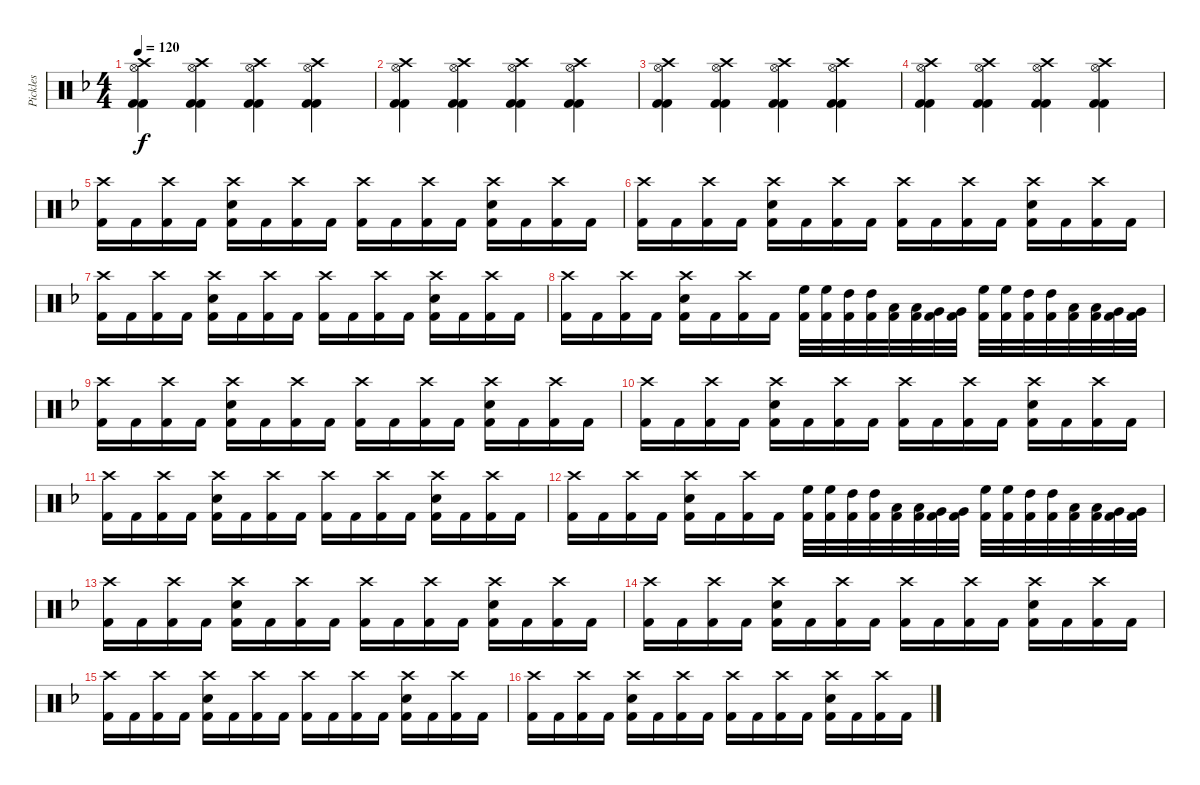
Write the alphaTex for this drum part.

\track ("Pickles" "Pickles") {instrument percussion}
\staff {score}
\articulation defaults
\ts (4 4)
\tempo 120
\clef neutral
\ks dminor
("Crash high (hit)" "Hi-Hat (open)" "Kick (hit) 2" "Kick (hit) 2").4{dy f} ("Crash high (hit)" "Hi-Hat (open)" "Kick (hit) 2" "Kick (hit) 2").4 ("Crash high (hit)" "Hi-Hat (open)" "Kick (hit) 2" "Kick (hit) 2").4 ("Crash high (hit)" "Hi-Hat (open)" "Kick (hit) 2" "Kick (hit) 2").4 |
("Crash high (hit)" "Hi-Hat (open)" "Kick (hit) 2" "Kick (hit) 2").4 ("Crash high (hit)" "Hi-Hat (open)" "Kick (hit) 2" "Kick (hit) 2").4 ("Crash high (hit)" "Hi-Hat (open)" "Kick (hit) 2" "Kick (hit) 2").4 ("Crash high (hit)" "Hi-Hat (open)" "Kick (hit) 2" "Kick (hit) 2").4 |
("Crash high (hit)" "Hi-Hat (open)" "Kick (hit) 2" "Kick (hit) 2").4 ("Crash high (hit)" "Hi-Hat (open)" "Kick (hit) 2" "Kick (hit) 2").4 ("Crash high (hit)" "Hi-Hat (open)" "Kick (hit) 2" "Kick (hit) 2").4 ("Crash high (hit)" "Hi-Hat (open)" "Kick (hit) 2" "Kick (hit) 2").4 |
("Crash high (hit)" "Hi-Hat (open)" "Kick (hit) 2" "Kick (hit) 2").4 ("Crash high (hit)" "Hi-Hat (open)" "Kick (hit) 2" "Kick (hit) 2").4 ("Crash high (hit)" "Hi-Hat (open)" "Kick (hit) 2" "Kick (hit) 2").4 ("Crash high (hit)" "Hi-Hat (open)" "Kick (hit) 2" "Kick (hit) 2").4 |
("Crash high (hit)" "Kick (hit) 2").16 "Kick (hit) 2".16 ("Crash high (hit)" "Kick (hit) 2").16 "Kick (hit) 2".16 ("Crash high (hit)" "Snare (hit) 2" "Kick (hit) 2").16 "Kick (hit) 2".16 ("Crash high (hit)" "Kick (hit) 2").16 "Kick (hit) 2".16 ("Crash high (hit)" "Kick (hit) 2").16 "Kick (hit) 2".16 ("Crash high (hit)" "Kick (hit) 2").16 "Kick (hit) 2".16 ("Crash high (hit)" "Snare (hit) 2" "Kick (hit) 2").16 "Kick (hit) 2".16 ("Crash high (hit)" "Kick (hit) 2").16 "Kick (hit) 2".16 |
("Crash high (hit)" "Kick (hit) 2").16 "Kick (hit) 2".16 ("Crash high (hit)" "Kick (hit) 2").16 "Kick (hit) 2".16 ("Crash high (hit)" "Snare (hit) 2" "Kick (hit) 2").16 "Kick (hit) 2".16 ("Crash high (hit)" "Kick (hit) 2").16 "Kick (hit) 2".16 ("Crash high (hit)" "Kick (hit) 2").16 "Kick (hit) 2".16 ("Crash high (hit)" "Kick (hit) 2").16 "Kick (hit) 2".16 ("Crash high (hit)" "Snare (hit) 2" "Kick (hit) 2").16 "Kick (hit) 2".16 ("Crash high (hit)" "Kick (hit) 2").16 "Kick (hit) 2".16 |
("Crash high (hit)" "Kick (hit) 2").16 "Kick (hit) 2".16 ("Crash high (hit)" "Kick (hit) 2").16 "Kick (hit) 2".16 ("Crash high (hit)" "Snare (hit) 2" "Kick (hit) 2").16 "Kick (hit) 2".16 ("Crash high (hit)" "Kick (hit) 2").16 "Kick (hit) 2".16 ("Crash high (hit)" "Kick (hit) 2").16 "Kick (hit) 2".16 ("Crash high (hit)" "Kick (hit) 2").16 "Kick (hit) 2".16 ("Crash high (hit)" "Snare (hit) 2" "Kick (hit) 2").16 "Kick (hit) 2".16 ("Crash high (hit)" "Kick (hit) 2").16 "Kick (hit) 2".16 |
("Crash high (hit)" "Kick (hit) 2").16 "Kick (hit) 2".16 ("Crash high (hit)" "Kick (hit) 2").16 "Kick (hit) 2".16 ("Crash high (hit)" "Snare (hit) 2" "Kick (hit) 2").16 "Kick (hit) 2".16 ("Crash high (hit)" "Kick (hit) 2").16 "Kick (hit) 2".16 ("High Floor Tom (hit)" "Kick (hit) 2").32 ("High Floor Tom (hit)" "Kick (hit) 2").32 ("High Tom (hit)" "Kick (hit) 2").32 ("High Tom (hit)" "Kick (hit) 2").32 ("Low Tom (hit)" "Kick (hit) 2").32 ("Low Tom (hit)" "Kick (hit) 2").32 ("Very Low Tom (hit)" "Kick (hit) 2").32 ("Very Low Tom (hit)" "Kick (hit) 2").32 ("High Floor Tom (hit)" "Kick (hit) 2").32 ("High Floor Tom (hit)" "Kick (hit) 2").32 ("High Tom (hit)" "Kick (hit) 2").32 ("High Tom (hit)" "Kick (hit) 2").32 ("Low Tom (hit)" "Kick (hit) 2").32 ("Low Tom (hit)" "Kick (hit) 2").32 ("Very Low Tom (hit)" "Kick (hit) 2").32 ("Very Low Tom (hit)" "Kick (hit) 2").32 |
("Crash high (hit)" "Kick (hit) 2").16 "Kick (hit) 2".16 ("Crash high (hit)" "Kick (hit) 2").16 "Kick (hit) 2".16 ("Crash high (hit)" "Snare (hit) 2" "Kick (hit) 2").16 "Kick (hit) 2".16 ("Crash high (hit)" "Kick (hit) 2").16 "Kick (hit) 2".16 ("Crash high (hit)" "Kick (hit) 2").16 "Kick (hit) 2".16 ("Crash high (hit)" "Kick (hit) 2").16 "Kick (hit) 2".16 ("Crash high (hit)" "Snare (hit) 2" "Kick (hit) 2").16 "Kick (hit) 2".16 ("Crash high (hit)" "Kick (hit) 2").16 "Kick (hit) 2".16 |
("Crash high (hit)" "Kick (hit) 2").16 "Kick (hit) 2".16 ("Crash high (hit)" "Kick (hit) 2").16 "Kick (hit) 2".16 ("Crash high (hit)" "Snare (hit) 2" "Kick (hit) 2").16 "Kick (hit) 2".16 ("Crash high (hit)" "Kick (hit) 2").16 "Kick (hit) 2".16 ("Crash high (hit)" "Kick (hit) 2").16 "Kick (hit) 2".16 ("Crash high (hit)" "Kick (hit) 2").16 "Kick (hit) 2".16 ("Crash high (hit)" "Snare (hit) 2" "Kick (hit) 2").16 "Kick (hit) 2".16 ("Crash high (hit)" "Kick (hit) 2").16 "Kick (hit) 2".16 |
("Crash high (hit)" "Kick (hit) 2").16 "Kick (hit) 2".16 ("Crash high (hit)" "Kick (hit) 2").16 "Kick (hit) 2".16 ("Crash high (hit)" "Snare (hit) 2" "Kick (hit) 2").16 "Kick (hit) 2".16 ("Crash high (hit)" "Kick (hit) 2").16 "Kick (hit) 2".16 ("Crash high (hit)" "Kick (hit) 2").16 "Kick (hit) 2".16 ("Crash high (hit)" "Kick (hit) 2").16 "Kick (hit) 2".16 ("Crash high (hit)" "Snare (hit) 2" "Kick (hit) 2").16 "Kick (hit) 2".16 ("Crash high (hit)" "Kick (hit) 2").16 "Kick (hit) 2".16 |
("Crash high (hit)" "Kick (hit) 2").16 "Kick (hit) 2".16 ("Crash high (hit)" "Kick (hit) 2").16 "Kick (hit) 2".16 ("Crash high (hit)" "Snare (hit) 2" "Kick (hit) 2").16 "Kick (hit) 2".16 ("Crash high (hit)" "Kick (hit) 2").16 "Kick (hit) 2".16 ("High Floor Tom (hit)" "Kick (hit) 2").32 ("High Floor Tom (hit)" "Kick (hit) 2").32 ("High Tom (hit)" "Kick (hit) 2").32 ("High Tom (hit)" "Kick (hit) 2").32 ("Low Tom (hit)" "Kick (hit) 2").32 ("Low Tom (hit)" "Kick (hit) 2").32 ("Very Low Tom (hit)" "Kick (hit) 2").32 ("Very Low Tom (hit)" "Kick (hit) 2").32 ("High Floor Tom (hit)" "Kick (hit) 2").32 ("High Floor Tom (hit)" "Kick (hit) 2").32 ("High Tom (hit)" "Kick (hit) 2").32 ("High Tom (hit)" "Kick (hit) 2").32 ("Low Tom (hit)" "Kick (hit) 2").32 ("Low Tom (hit)" "Kick (hit) 2").32 ("Very Low Tom (hit)" "Kick (hit) 2").32 ("Very Low Tom (hit)" "Kick (hit) 2").32 |
("Crash high (hit)" "Kick (hit) 2").16 "Kick (hit) 2".16 ("Crash high (hit)" "Kick (hit) 2").16 "Kick (hit) 2".16 ("Crash high (hit)" "Snare (hit) 2" "Kick (hit) 2").16 "Kick (hit) 2".16 ("Crash high (hit)" "Kick (hit) 2").16 "Kick (hit) 2".16 ("Crash high (hit)" "Kick (hit) 2").16 "Kick (hit) 2".16 ("Crash high (hit)" "Kick (hit) 2").16 "Kick (hit) 2".16 ("Crash high (hit)" "Snare (hit) 2" "Kick (hit) 2").16 "Kick (hit) 2".16 ("Crash high (hit)" "Kick (hit) 2").16 "Kick (hit) 2".16 |
("Crash high (hit)" "Kick (hit) 2").16 "Kick (hit) 2".16 ("Crash high (hit)" "Kick (hit) 2").16 "Kick (hit) 2".16 ("Crash high (hit)" "Snare (hit) 2" "Kick (hit) 2").16 "Kick (hit) 2".16 ("Crash high (hit)" "Kick (hit) 2").16 "Kick (hit) 2".16 ("Crash high (hit)" "Kick (hit) 2").16 "Kick (hit) 2".16 ("Crash high (hit)" "Kick (hit) 2").16 "Kick (hit) 2".16 ("Crash high (hit)" "Snare (hit) 2" "Kick (hit) 2").16 "Kick (hit) 2".16 ("Crash high (hit)" "Kick (hit) 2").16 "Kick (hit) 2".16 |
("Crash high (hit)" "Kick (hit) 2").16 "Kick (hit) 2".16 ("Crash high (hit)" "Kick (hit) 2").16 "Kick (hit) 2".16 ("Crash high (hit)" "Snare (hit) 2" "Kick (hit) 2").16 "Kick (hit) 2".16 ("Crash high (hit)" "Kick (hit) 2").16 "Kick (hit) 2".16 ("Crash high (hit)" "Kick (hit) 2").16 "Kick (hit) 2".16 ("Crash high (hit)" "Kick (hit) 2").16 "Kick (hit) 2".16 ("Crash high (hit)" "Snare (hit) 2" "Kick (hit) 2").16 "Kick (hit) 2".16 ("Crash high (hit)" "Kick (hit) 2").16 "Kick (hit) 2".16 |
("Crash high (hit)" "Kick (hit) 2").16 "Kick (hit) 2".16 ("Crash high (hit)" "Kick (hit) 2").16 "Kick (hit) 2".16 ("Crash high (hit)" "Snare (hit) 2" "Kick (hit) 2").16 "Kick (hit) 2".16 ("Crash high (hit)" "Kick (hit) 2").16 "Kick (hit) 2".16 ("Crash high (hit)" "Kick (hit) 2").16 "Kick (hit) 2".16 ("Crash high (hit)" "Kick (hit) 2").16 "Kick (hit) 2".16 ("Crash high (hit)" "Snare (hit) 2" "Kick (hit) 2").16 "Kick (hit) 2".16 ("Crash high (hit)" "Kick (hit) 2").16 "Kick (hit) 2".16
